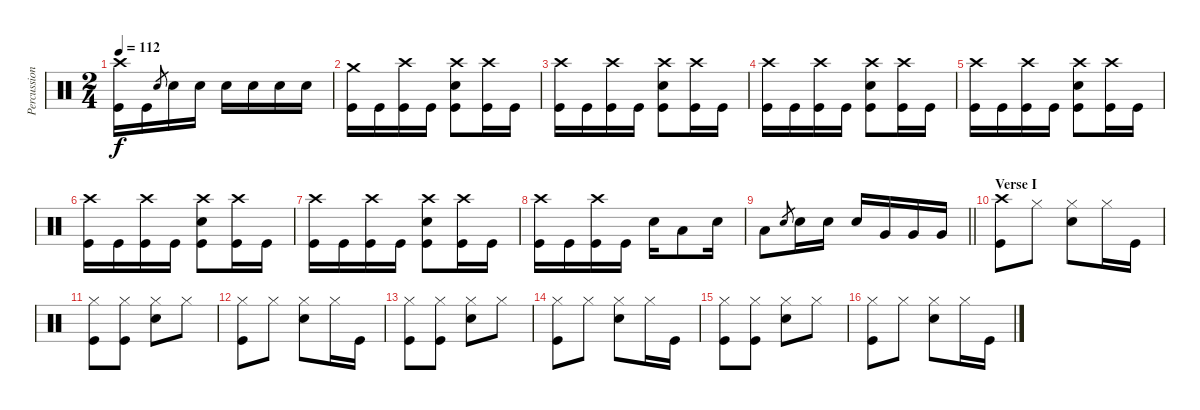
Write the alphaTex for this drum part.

\track ("Percussion" "Percussion") {instrument percussion}
\staff {score}
\articulation defaults
\ts (2 4)
\tempo 112
\clef neutral
\ks c
("Crash high (hit)" "Kick (hit)").16{dy f} "Kick (hit)".16 "Electric Snare (hit)".8{gr} "Electric Snare (hit)".16 "Electric Snare (hit)".16 "Electric Snare (hit)".16 "Electric Snare (hit)".16 "Electric Snare (hit)".16 "Electric Snare (hit)".16 |
("Crash medium (hit)" "Kick (hit)").16 "Kick (hit)".16 ("Crash high (hit)" "Kick (hit)").16 "Kick (hit)".16 ("Crash high (hit)" "Electric Snare (hit)" "Kick (hit)").8 ("Crash high (hit)" "Kick (hit)").16 "Kick (hit)".16 |
("Crash high (hit)" "Kick (hit)").16 "Kick (hit)".16 ("Crash high (hit)" "Kick (hit)").16 "Kick (hit)".16 ("Crash high (hit)" "Electric Snare (hit)" "Kick (hit)").8 ("Crash high (hit)" "Kick (hit)").16 "Kick (hit)".16 |
("Crash high (hit)" "Kick (hit)").16 "Kick (hit)".16 ("Crash high (hit)" "Kick (hit)").16 "Kick (hit)".16 ("Crash high (hit)" "Electric Snare (hit)" "Kick (hit)").8 ("Crash high (hit)" "Kick (hit)").16 "Kick (hit)".16 |
("Crash high (hit)" "Kick (hit)").16 "Kick (hit)".16 ("Crash high (hit)" "Kick (hit)").16 "Kick (hit)".16 ("Crash high (hit)" "Electric Snare (hit)" "Kick (hit)").8 ("Crash high (hit)" "Kick (hit)").16 "Kick (hit)".16 |
("Crash high (hit)" "Kick (hit)").16 "Kick (hit)".16 ("Crash high (hit)" "Kick (hit)").16 "Kick (hit)".16 ("Crash high (hit)" "Electric Snare (hit)" "Kick (hit)").8 ("Crash high (hit)" "Kick (hit)").16 "Kick (hit)".16 |
("Crash high (hit)" "Kick (hit)").16 "Kick (hit)".16 ("Crash high (hit)" "Kick (hit)").16 "Kick (hit)".16 ("Crash high (hit)" "Electric Snare (hit)" "Kick (hit)").8 ("Crash high (hit)" "Kick (hit)").16 "Kick (hit)".16 |
("Crash high (hit)" "Kick (hit)").16 "Kick (hit)".16 ("Crash high (hit)" "Kick (hit)").16 "Kick (hit)".16 "Electric Snare (hit)".16 "Low Floor Tom (hit)".8 "Electric Snare (hit)".16 |
\barLineRight lightlight "Low Floor Tom (hit)".8 "Electric Snare (hit)".8{gr} "Electric Snare (hit)".16 "Electric Snare (hit)".16 "Electric Snare (hit)".16 "Very Low Tom (hit)".16 "Very Low Tom (hit)".16 "Very Low Tom (hit)".16
|
\section ("" "Verse I")
("Crash high (hit)" "Kick (hit)").8 "Hi-Hat (closed)".8 ("Hi-Hat (closed)" "Electric Snare (hit)").8 "Hi-Hat (closed)".16 "Kick (hit)".16 |
("Hi-Hat (closed)" "Kick (hit)").8 ("Hi-Hat (closed)" "Kick (hit)").8 ("Hi-Hat (closed)" "Electric Snare (hit)").8 "Hi-Hat (closed)".8 |
("Hi-Hat (closed)" "Kick (hit)").8 "Hi-Hat (closed)".8 ("Hi-Hat (closed)" "Electric Snare (hit)").8 "Hi-Hat (closed)".16 "Kick (hit)".16 |
("Hi-Hat (closed)" "Kick (hit)").8 ("Hi-Hat (closed)" "Kick (hit)").8 ("Hi-Hat (closed)" "Electric Snare (hit)").8 "Hi-Hat (closed)".8 |
("Hi-Hat (closed)" "Kick (hit)").8 "Hi-Hat (closed)".8 ("Hi-Hat (closed)" "Electric Snare (hit)").8 "Hi-Hat (closed)".16 "Kick (hit)".16 |
("Hi-Hat (closed)" "Kick (hit)").8 ("Hi-Hat (closed)" "Kick (hit)").8 ("Hi-Hat (closed)" "Electric Snare (hit)").8 "Hi-Hat (closed)".8 |
("Hi-Hat (closed)" "Kick (hit)").8 "Hi-Hat (closed)".8 ("Hi-Hat (closed)" "Electric Snare (hit)").8 "Hi-Hat (closed)".16 "Kick (hit)".16
